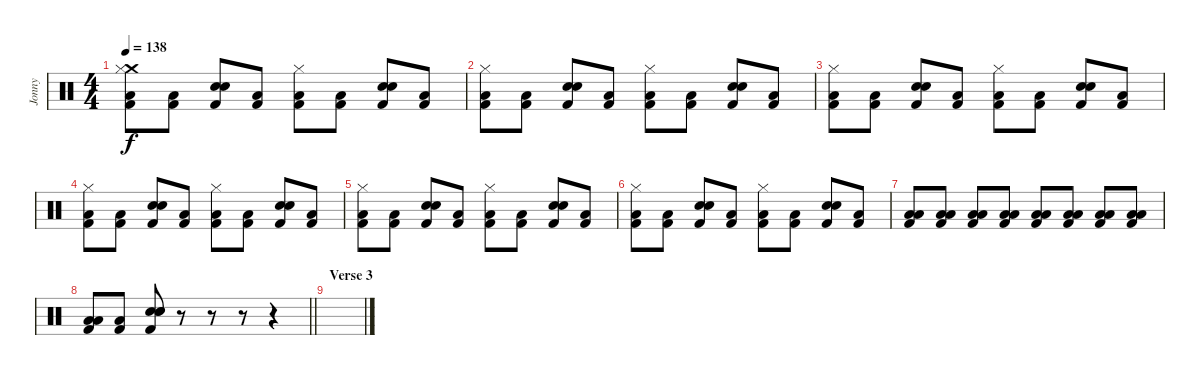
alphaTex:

\track ("Jonny" "Jonny") {instrument percussion}
\staff {score}
\articulation defaults
\ts (4 4)
\tempo 138
\clef neutral
\ks c
("Crash medium (hit)" "Hi-Hat (closed)" "Low Floor Tom (hit)" "Kick (hit) 2").8{dy f} ("Low Floor Tom (hit)" "Kick (hit) 2").8 ("Electric Snare (hit)" "Electric Snare (hit)" "Kick (hit) 2").8 ("Low Floor Tom (hit)" "Kick (hit) 2").8 ("Hi-Hat (closed)" "Low Floor Tom (hit)" "Kick (hit) 2").8 ("Low Floor Tom (hit)" "Kick (hit) 2").8 ("Electric Snare (hit)" "Electric Snare (hit)" "Kick (hit) 2").8 ("Low Floor Tom (hit)" "Kick (hit) 2").8 |
("Hi-Hat (closed)" "Low Floor Tom (hit)" "Kick (hit) 2").8 ("Low Floor Tom (hit)" "Kick (hit) 2").8 ("Electric Snare (hit)" "Electric Snare (hit)" "Kick (hit) 2").8 ("Low Floor Tom (hit)" "Kick (hit) 2").8 ("Hi-Hat (closed)" "Low Floor Tom (hit)" "Kick (hit) 2").8 ("Low Floor Tom (hit)" "Kick (hit) 2").8 ("Electric Snare (hit)" "Electric Snare (hit)" "Kick (hit) 2").8 ("Low Floor Tom (hit)" "Kick (hit) 2").8 |
("Hi-Hat (closed)" "Low Floor Tom (hit)" "Kick (hit) 2").8 ("Low Floor Tom (hit)" "Kick (hit) 2").8 ("Electric Snare (hit)" "Electric Snare (hit)" "Kick (hit) 2").8 ("Low Floor Tom (hit)" "Kick (hit) 2").8 ("Hi-Hat (closed)" "Low Floor Tom (hit)" "Kick (hit) 2").8 ("Low Floor Tom (hit)" "Kick (hit) 2").8 ("Electric Snare (hit)" "Electric Snare (hit)" "Kick (hit) 2").8 ("Low Floor Tom (hit)" "Kick (hit) 2").8 |
("Hi-Hat (closed)" "Low Floor Tom (hit)" "Kick (hit) 2").8 ("Low Floor Tom (hit)" "Kick (hit) 2").8 ("Electric Snare (hit)" "Electric Snare (hit)" "Kick (hit) 2").8 ("Low Floor Tom (hit)" "Kick (hit) 2").8 ("Hi-Hat (closed)" "Low Floor Tom (hit)" "Kick (hit) 2").8 ("Low Floor Tom (hit)" "Kick (hit) 2").8 ("Electric Snare (hit)" "Electric Snare (hit)" "Kick (hit) 2").8 ("Low Floor Tom (hit)" "Kick (hit) 2").8 |
("Hi-Hat (closed)" "Low Floor Tom (hit)" "Kick (hit) 2").8 ("Low Floor Tom (hit)" "Kick (hit) 2").8 ("Electric Snare (hit)" "Electric Snare (hit)" "Kick (hit) 2").8 ("Low Floor Tom (hit)" "Kick (hit) 2").8 ("Hi-Hat (closed)" "Low Floor Tom (hit)" "Kick (hit) 2").8 ("Low Floor Tom (hit)" "Kick (hit) 2").8 ("Electric Snare (hit)" "Electric Snare (hit)" "Kick (hit) 2").8 ("Low Floor Tom (hit)" "Kick (hit) 2").8 |
("Hi-Hat (closed)" "Low Floor Tom (hit)" "Kick (hit) 2").8 ("Low Floor Tom (hit)" "Kick (hit) 2").8 ("Electric Snare (hit)" "Electric Snare (hit)" "Kick (hit) 2").8 ("Low Floor Tom (hit)" "Kick (hit) 2").8 ("Hi-Hat (closed)" "Low Floor Tom (hit)" "Kick (hit) 2").8 ("Low Floor Tom (hit)" "Kick (hit) 2").8 ("Electric Snare (hit)" "Electric Snare (hit)" "Kick (hit) 2").8 ("Low Floor Tom (hit)" "Kick (hit) 2").8 |
("Low Floor Tom (hit)" "Low Floor Tom (hit)" "Kick (hit) 2").8 ("Low Floor Tom (hit)" "Low Floor Tom (hit)" "Kick (hit) 2").8 ("Low Floor Tom (hit)" "Low Floor Tom (hit)" "Kick (hit) 2").8 ("Low Floor Tom (hit)" "Low Floor Tom (hit)" "Kick (hit) 2").8 ("Low Floor Tom (hit)" "Low Floor Tom (hit)" "Kick (hit) 2").8 ("Low Floor Tom (hit)" "Low Floor Tom (hit)" "Kick (hit) 2").8 ("Low Floor Tom (hit)" "Low Floor Tom (hit)" "Kick (hit) 2").8 ("Low Floor Tom (hit)" "Low Floor Tom (hit)" "Kick (hit) 2").8 |
\barLineRight lightlight
("Low Floor Tom (hit)" "Low Floor Tom (hit)" "Kick (hit) 2").8 ("Low Floor Tom (hit)" "Kick (hit) 2").8 ("Electric Snare (hit)" "Electric Snare (hit)" "Electric Snare (hit)" "Kick (hit) 2").8 r.8 r.8 r.8 r.4 |
\section ("" "Verse 3")
